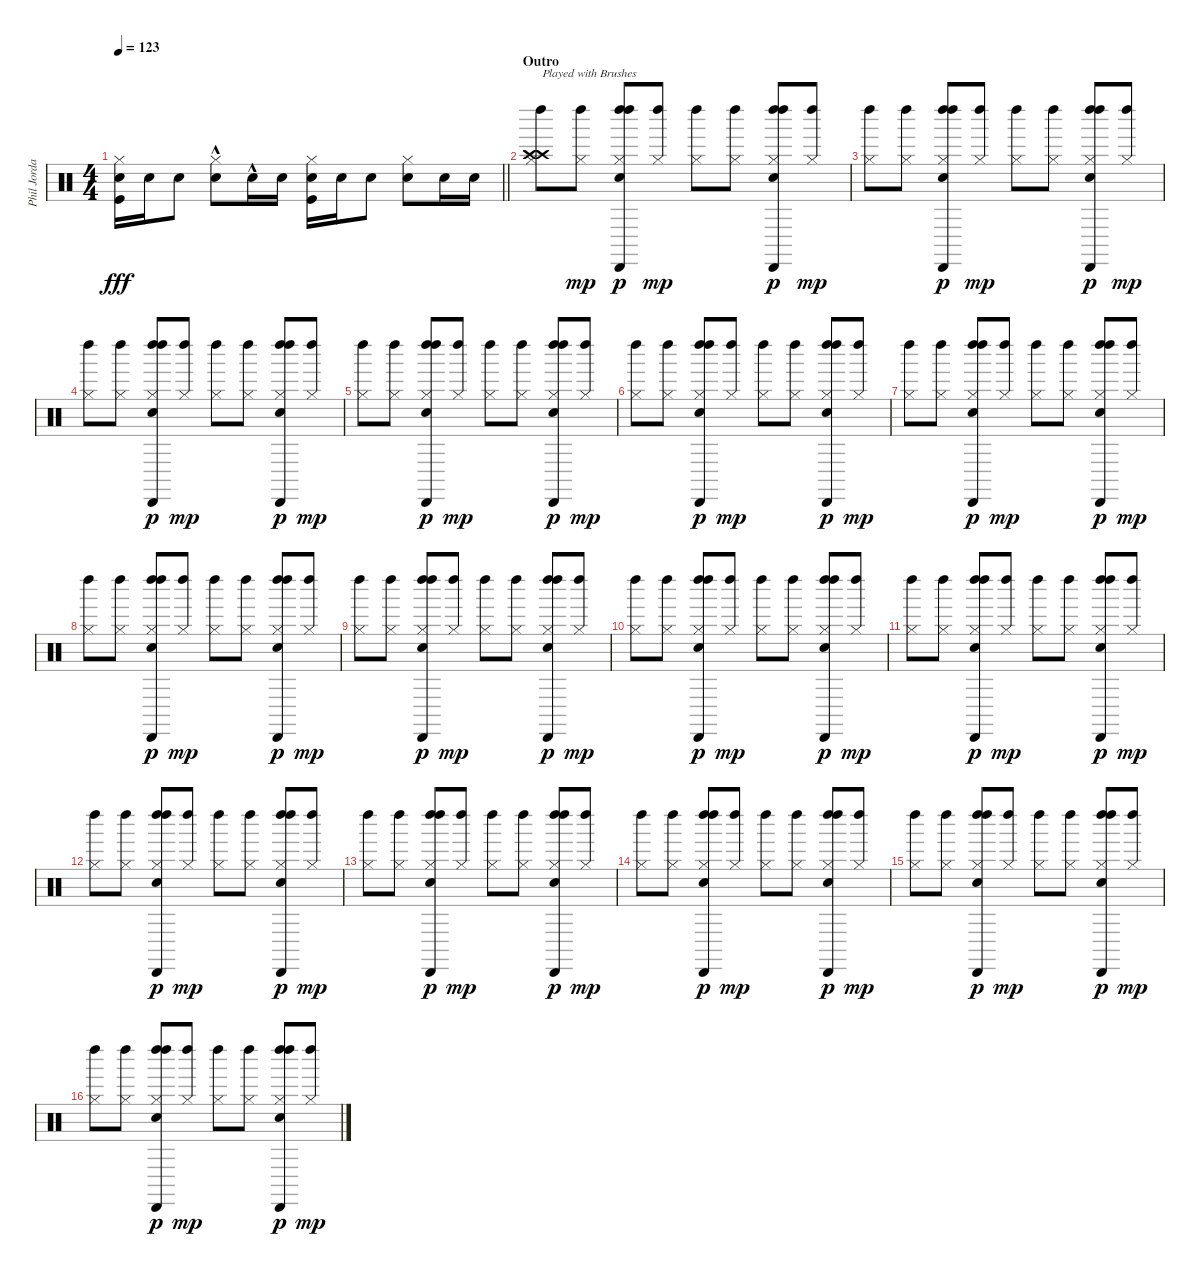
\track ("Phil Jordan" "Phil Jorda") {instrument percussion}
\staff {score}
\articulation defaults
\ts (4 4)
\tempo 123
\clef neutral
\barLineRight lightlight
\ks c
("Hi-Hat (closed)" "Snare (hit) 2" "Kick (hit)").16{dy fff} "Snare (hit) 2".16 "Snare (hit) 2".8 ("Hi-Hat (closed)" "Snare (hit) 2"{hac}).8 "Snare (hit) 2"{hac}.16 "Snare (hit) 2".16 ("Hi-Hat (closed)" "Snare (hit) 2" "Kick (hit)").16 "Snare (hit) 2".16 "Snare (hit) 2".8 ("Hi-Hat (closed)" "Snare (hit) 2").8 "Snare (hit) 2".16 "Snare (hit) 2".16 |
\section ("" "Outro")
("Left Maraca (hit)" "Hi-Hat (closed)" "Crash high (hit)" "Crash high (hit)").8{txt "Played with Brushes" volume 11} ("Left Maraca (hit)" "Hi-Hat (closed)").8{dy mp} ("Left Maraca (hit)" "Hi-Hat (closed)" "Cabasa (hit)" "Left Maraca (hit)" "Snare (hit) 2").8{dy p} ("Left Maraca (hit)" "Hi-Hat (closed)").8{dy mp} ("Left Maraca (hit)" "Hi-Hat (closed)").8 ("Left Maraca (hit)" "Hi-Hat (closed)").8 ("Left Maraca (hit)" "Hi-Hat (closed)" "Cabasa (hit)" "Left Maraca (hit)" "Snare (hit) 2").8{dy p} ("Left Maraca (hit)" "Hi-Hat (closed)").8{dy mp} |
("Left Maraca (hit)" "Hi-Hat (closed)").8 ("Left Maraca (hit)" "Hi-Hat (closed)").8 ("Left Maraca (hit)" "Hi-Hat (closed)" "Cabasa (hit)" "Left Maraca (hit)" "Snare (hit) 2").8{dy p} ("Left Maraca (hit)" "Hi-Hat (closed)").8{dy mp} ("Left Maraca (hit)" "Hi-Hat (closed)").8 ("Left Maraca (hit)" "Hi-Hat (closed)").8 ("Left Maraca (hit)" "Hi-Hat (closed)" "Cabasa (hit)" "Left Maraca (hit)" "Snare (hit) 2").8{dy p} ("Left Maraca (hit)" "Hi-Hat (closed)").8{dy mp} |
("Left Maraca (hit)" "Hi-Hat (closed)").8 ("Left Maraca (hit)" "Hi-Hat (closed)").8 ("Left Maraca (hit)" "Hi-Hat (closed)" "Cabasa (hit)" "Left Maraca (hit)" "Snare (hit) 2").8{dy p} ("Left Maraca (hit)" "Hi-Hat (closed)").8{dy mp} ("Left Maraca (hit)" "Hi-Hat (closed)").8 ("Left Maraca (hit)" "Hi-Hat (closed)").8 ("Left Maraca (hit)" "Hi-Hat (closed)" "Cabasa (hit)" "Left Maraca (hit)" "Snare (hit) 2").8{dy p} ("Left Maraca (hit)" "Hi-Hat (closed)").8{dy mp} |
("Left Maraca (hit)" "Hi-Hat (closed)").8 ("Left Maraca (hit)" "Hi-Hat (closed)").8 ("Left Maraca (hit)" "Hi-Hat (closed)" "Cabasa (hit)" "Left Maraca (hit)" "Snare (hit) 2").8{dy p} ("Left Maraca (hit)" "Hi-Hat (closed)").8{dy mp} ("Left Maraca (hit)" "Hi-Hat (closed)").8 ("Left Maraca (hit)" "Hi-Hat (closed)").8 ("Left Maraca (hit)" "Hi-Hat (closed)" "Cabasa (hit)" "Left Maraca (hit)" "Snare (hit) 2").8{dy p} ("Left Maraca (hit)" "Hi-Hat (closed)").8{dy mp} |
("Left Maraca (hit)" "Hi-Hat (closed)").8 ("Left Maraca (hit)" "Hi-Hat (closed)").8{volume 7} ("Left Maraca (hit)" "Hi-Hat (closed)" "Cabasa (hit)" "Left Maraca (hit)" "Snare (hit) 2").8{dy p} ("Left Maraca (hit)" "Hi-Hat (closed)").8{dy mp} ("Left Maraca (hit)" "Hi-Hat (closed)").8 ("Left Maraca (hit)" "Hi-Hat (closed)").8 ("Left Maraca (hit)" "Hi-Hat (closed)" "Cabasa (hit)" "Left Maraca (hit)" "Snare (hit) 2").8{dy p} ("Left Maraca (hit)" "Hi-Hat (closed)").8{dy mp} |
("Left Maraca (hit)" "Hi-Hat (closed)").8 ("Left Maraca (hit)" "Hi-Hat (closed)").8 ("Left Maraca (hit)" "Hi-Hat (closed)" "Cabasa (hit)" "Left Maraca (hit)" "Snare (hit) 2").8{dy p} ("Left Maraca (hit)" "Hi-Hat (closed)").8{dy mp} ("Left Maraca (hit)" "Hi-Hat (closed)").8 ("Left Maraca (hit)" "Hi-Hat (closed)").8 ("Left Maraca (hit)" "Hi-Hat (closed)" "Cabasa (hit)" "Left Maraca (hit)" "Snare (hit) 2").8{dy p} ("Left Maraca (hit)" "Hi-Hat (closed)").8{dy mp} |
("Left Maraca (hit)" "Hi-Hat (closed)").8 ("Left Maraca (hit)" "Hi-Hat (closed)").8 ("Left Maraca (hit)" "Hi-Hat (closed)" "Cabasa (hit)" "Left Maraca (hit)" "Snare (hit) 2").8{dy p} ("Left Maraca (hit)" "Hi-Hat (closed)").8{dy mp} ("Left Maraca (hit)" "Hi-Hat (closed)").8 ("Left Maraca (hit)" "Hi-Hat (closed)").8 ("Left Maraca (hit)" "Hi-Hat (closed)" "Cabasa (hit)" "Left Maraca (hit)" "Snare (hit) 2").8{dy p} ("Left Maraca (hit)" "Hi-Hat (closed)").8{dy mp} |
("Left Maraca (hit)" "Hi-Hat (closed)").8 ("Left Maraca (hit)" "Hi-Hat (closed)").8 ("Left Maraca (hit)" "Hi-Hat (closed)" "Cabasa (hit)" "Left Maraca (hit)" "Snare (hit) 2").8{dy p} ("Left Maraca (hit)" "Hi-Hat (closed)").8{dy mp} ("Left Maraca (hit)" "Hi-Hat (closed)").8 ("Left Maraca (hit)" "Hi-Hat (closed)").8 ("Left Maraca (hit)" "Hi-Hat (closed)" "Cabasa (hit)" "Left Maraca (hit)" "Snare (hit) 2").8{dy p} ("Left Maraca (hit)" "Hi-Hat (closed)").8{dy mp} |
("Left Maraca (hit)" "Hi-Hat (closed)").8 ("Left Maraca (hit)" "Hi-Hat (closed)").8 ("Left Maraca (hit)" "Hi-Hat (closed)" "Cabasa (hit)" "Left Maraca (hit)" "Snare (hit) 2").8{dy p volume 3} ("Left Maraca (hit)" "Hi-Hat (closed)").8{dy mp} ("Left Maraca (hit)" "Hi-Hat (closed)").8 ("Left Maraca (hit)" "Hi-Hat (closed)").8 ("Left Maraca (hit)" "Hi-Hat (closed)" "Cabasa (hit)" "Left Maraca (hit)" "Snare (hit) 2").8{dy p} ("Left Maraca (hit)" "Hi-Hat (closed)").8{dy mp} |
("Left Maraca (hit)" "Hi-Hat (closed)").8 ("Left Maraca (hit)" "Hi-Hat (closed)").8 ("Left Maraca (hit)" "Hi-Hat (closed)" "Cabasa (hit)" "Left Maraca (hit)" "Snare (hit) 2").8{dy p} ("Left Maraca (hit)" "Hi-Hat (closed)").8{dy mp} ("Left Maraca (hit)" "Hi-Hat (closed)").8 ("Left Maraca (hit)" "Hi-Hat (closed)").8 ("Left Maraca (hit)" "Hi-Hat (closed)" "Cabasa (hit)" "Left Maraca (hit)" "Snare (hit) 2").8{dy p} ("Left Maraca (hit)" "Hi-Hat (closed)").8{dy mp} |
("Left Maraca (hit)" "Hi-Hat (closed)").8 ("Left Maraca (hit)" "Hi-Hat (closed)").8 ("Left Maraca (hit)" "Hi-Hat (closed)" "Cabasa (hit)" "Left Maraca (hit)" "Snare (hit) 2").8{dy p} ("Left Maraca (hit)" "Hi-Hat (closed)").8{dy mp} ("Left Maraca (hit)" "Hi-Hat (closed)").8 ("Left Maraca (hit)" "Hi-Hat (closed)").8 ("Left Maraca (hit)" "Hi-Hat (closed)" "Cabasa (hit)" "Left Maraca (hit)" "Snare (hit) 2").8{dy p} ("Left Maraca (hit)" "Hi-Hat (closed)").8{dy mp} |
("Left Maraca (hit)" "Hi-Hat (closed)").8 ("Left Maraca (hit)" "Hi-Hat (closed)").8 ("Left Maraca (hit)" "Hi-Hat (closed)" "Cabasa (hit)" "Left Maraca (hit)" "Snare (hit) 2").8{dy p} ("Left Maraca (hit)" "Hi-Hat (closed)").8{dy mp} ("Left Maraca (hit)" "Hi-Hat (closed)").8 ("Left Maraca (hit)" "Hi-Hat (closed)").8 ("Left Maraca (hit)" "Hi-Hat (closed)" "Cabasa (hit)" "Left Maraca (hit)" "Snare (hit) 2").8{dy p} ("Left Maraca (hit)" "Hi-Hat (closed)").8{dy mp} |
("Left Maraca (hit)" "Hi-Hat (closed)").8 ("Left Maraca (hit)" "Hi-Hat (closed)").8 ("Left Maraca (hit)" "Hi-Hat (closed)" "Cabasa (hit)" "Left Maraca (hit)" "Snare (hit) 2").8{dy p} ("Left Maraca (hit)" "Hi-Hat (closed)").8{dy mp volume 0} ("Left Maraca (hit)" "Hi-Hat (closed)").8 ("Left Maraca (hit)" "Hi-Hat (closed)").8 ("Left Maraca (hit)" "Hi-Hat (closed)" "Cabasa (hit)" "Left Maraca (hit)" "Snare (hit) 2").8{dy p} ("Left Maraca (hit)" "Hi-Hat (closed)").8{dy mp} |
("Left Maraca (hit)" "Hi-Hat (closed)").8 ("Left Maraca (hit)" "Hi-Hat (closed)").8 ("Left Maraca (hit)" "Hi-Hat (closed)" "Cabasa (hit)" "Left Maraca (hit)" "Snare (hit) 2").8{dy p} ("Left Maraca (hit)" "Hi-Hat (closed)").8{dy mp} ("Left Maraca (hit)" "Hi-Hat (closed)").8 ("Left Maraca (hit)" "Hi-Hat (closed)").8 ("Left Maraca (hit)" "Hi-Hat (closed)" "Cabasa (hit)" "Left Maraca (hit)" "Snare (hit) 2").8{dy p} ("Left Maraca (hit)" "Hi-Hat (closed)").8{dy mp} |
("Left Maraca (hit)" "Hi-Hat (closed)").8 ("Left Maraca (hit)" "Hi-Hat (closed)").8 ("Left Maraca (hit)" "Hi-Hat (closed)" "Cabasa (hit)" "Left Maraca (hit)" "Snare (hit) 2").8{dy p} ("Left Maraca (hit)" "Hi-Hat (closed)").8{dy mp} ("Left Maraca (hit)" "Hi-Hat (closed)").8 ("Left Maraca (hit)" "Hi-Hat (closed)").8 ("Left Maraca (hit)" "Hi-Hat (closed)" "Cabasa (hit)" "Left Maraca (hit)" "Snare (hit) 2").8{dy p} ("Left Maraca (hit)" "Hi-Hat (closed)").8{dy mp}
